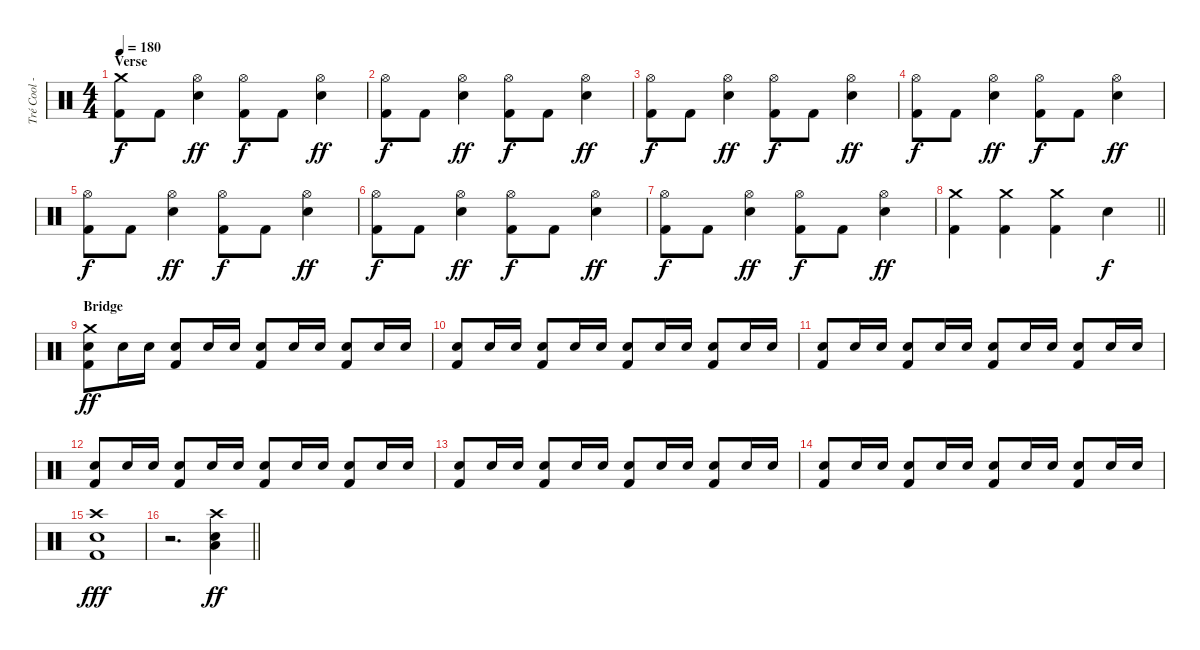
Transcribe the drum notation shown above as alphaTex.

\track ("Tré Cool - Drums" "Tré Cool -") {instrument percussion}
\staff {score}
\articulation defaults
\ts (4 4)
\section ("" "Verse")
\tempo 180
\clef neutral
\ks c
("Crash medium (hit)" "Kick (hit) 2").8{dy f} "Kick (hit) 2".8 ("Hi-Hat (open)" "Electric Snare (hit)").4{dy ff} ("Hi-Hat (open)" "Kick (hit) 2").8{dy f} "Kick (hit) 2".8 ("Hi-Hat (open)" "Electric Snare (hit)").4{dy ff} |
("Hi-Hat (open)" "Kick (hit) 2").8{dy f} "Kick (hit) 2".8 ("Hi-Hat (open)" "Electric Snare (hit)").4{dy ff} ("Hi-Hat (open)" "Kick (hit) 2").8{dy f} "Kick (hit) 2".8 ("Hi-Hat (open)" "Electric Snare (hit)").4{dy ff} |
("Hi-Hat (open)" "Kick (hit) 2").8{dy f} "Kick (hit) 2".8 ("Hi-Hat (open)" "Electric Snare (hit)").4{dy ff} ("Hi-Hat (open)" "Kick (hit) 2").8{dy f} "Kick (hit) 2".8 ("Hi-Hat (open)" "Electric Snare (hit)").4{dy ff} |
("Hi-Hat (open)" "Kick (hit) 2").8{dy f} "Kick (hit) 2".8 ("Hi-Hat (open)" "Electric Snare (hit)").4{dy ff} ("Hi-Hat (open)" "Kick (hit) 2").8{dy f} "Kick (hit) 2".8 ("Hi-Hat (open)" "Electric Snare (hit)").4{dy ff} |
("Hi-Hat (open)" "Kick (hit) 2").8{dy f} "Kick (hit) 2".8 ("Hi-Hat (open)" "Electric Snare (hit)").4{dy ff} ("Hi-Hat (open)" "Kick (hit) 2").8{dy f} "Kick (hit) 2".8 ("Hi-Hat (open)" "Electric Snare (hit)").4{dy ff} |
("Hi-Hat (open)" "Kick (hit) 2").8{dy f} "Kick (hit) 2".8 ("Hi-Hat (open)" "Electric Snare (hit)").4{dy ff} ("Hi-Hat (open)" "Kick (hit) 2").8{dy f} "Kick (hit) 2".8 ("Hi-Hat (open)" "Electric Snare (hit)").4{dy ff} |
("Hi-Hat (open)" "Kick (hit) 2").8{dy f} "Kick (hit) 2".8 ("Hi-Hat (open)" "Electric Snare (hit)").4{dy ff} ("Hi-Hat (open)" "Kick (hit) 2").8{dy f} "Kick (hit) 2".8 ("Hi-Hat (open)" "Electric Snare (hit)").4{dy ff} |
\barLineRight lightlight
("Crash medium (hit)" "Kick (hit) 2").4 ("Crash medium (hit)" "Kick (hit) 2").4 ("Crash medium (hit)" "Kick (hit) 2").4 "Electric Snare (hit)".4{dy f} |
\section ("" "Bridge")
("Crash medium (hit)" "Electric Snare (hit)" "Kick (hit) 2").8{dy ff volume 10} "Electric Snare (hit)".16 "Electric Snare (hit)".16 ("Electric Snare (hit)" "Kick (hit) 2").8 "Electric Snare (hit)".16 "Electric Snare (hit)".16 ("Electric Snare (hit)" "Kick (hit) 2").8 "Electric Snare (hit)".16 "Electric Snare (hit)".16 ("Electric Snare (hit)" "Kick (hit) 2").8 "Electric Snare (hit)".16 "Electric Snare (hit)".16 |
("Electric Snare (hit)" "Kick (hit) 2").8 "Electric Snare (hit)".16 "Electric Snare (hit)".16 ("Electric Snare (hit)" "Kick (hit) 2").8 "Electric Snare (hit)".16 "Electric Snare (hit)".16 ("Electric Snare (hit)" "Kick (hit) 2").8 "Electric Snare (hit)".16 "Electric Snare (hit)".16 ("Electric Snare (hit)" "Kick (hit) 2").8 "Electric Snare (hit)".16 "Electric Snare (hit)".16 |
("Electric Snare (hit)" "Kick (hit) 2").8 "Electric Snare (hit)".16 "Electric Snare (hit)".16 ("Electric Snare (hit)" "Kick (hit) 2").8 "Electric Snare (hit)".16 "Electric Snare (hit)".16 ("Electric Snare (hit)" "Kick (hit) 2").8 "Electric Snare (hit)".16 "Electric Snare (hit)".16 ("Electric Snare (hit)" "Kick (hit) 2").8 "Electric Snare (hit)".16 "Electric Snare (hit)".16 |
("Electric Snare (hit)" "Kick (hit) 2").8 "Electric Snare (hit)".16 "Electric Snare (hit)".16 ("Electric Snare (hit)" "Kick (hit) 2").8 "Electric Snare (hit)".16 "Electric Snare (hit)".16 ("Electric Snare (hit)" "Kick (hit) 2").8 "Electric Snare (hit)".16 "Electric Snare (hit)".16 ("Electric Snare (hit)" "Kick (hit) 2").8 "Electric Snare (hit)".16 "Electric Snare (hit)".16 |
("Electric Snare (hit)" "Kick (hit) 2").8 "Electric Snare (hit)".16 "Electric Snare (hit)".16 ("Electric Snare (hit)" "Kick (hit) 2").8 "Electric Snare (hit)".16 "Electric Snare (hit)".16 ("Electric Snare (hit)" "Kick (hit) 2").8 "Electric Snare (hit)".16 "Electric Snare (hit)".16 ("Electric Snare (hit)" "Kick (hit) 2").8 "Electric Snare (hit)".16 "Electric Snare (hit)".16 |
("Electric Snare (hit)" "Kick (hit) 2").8 "Electric Snare (hit)".16 "Electric Snare (hit)".16 ("Electric Snare (hit)" "Kick (hit) 2").8 "Electric Snare (hit)".16 "Electric Snare (hit)".16 ("Electric Snare (hit)" "Kick (hit) 2").8 "Electric Snare (hit)".16 "Electric Snare (hit)".16 ("Electric Snare (hit)" "Kick (hit) 2").8 "Electric Snare (hit)".16 "Electric Snare (hit)".16 |
("Crash high (hit)" "Electric Snare (hit)" "Kick (hit) 2").1{dy fff} |
\barLineRight lightlight
r.2{d} ("Crash high (hit)" "Electric Snare (hit)" "Low Tom (hit)").4{dy ff volume 12}
